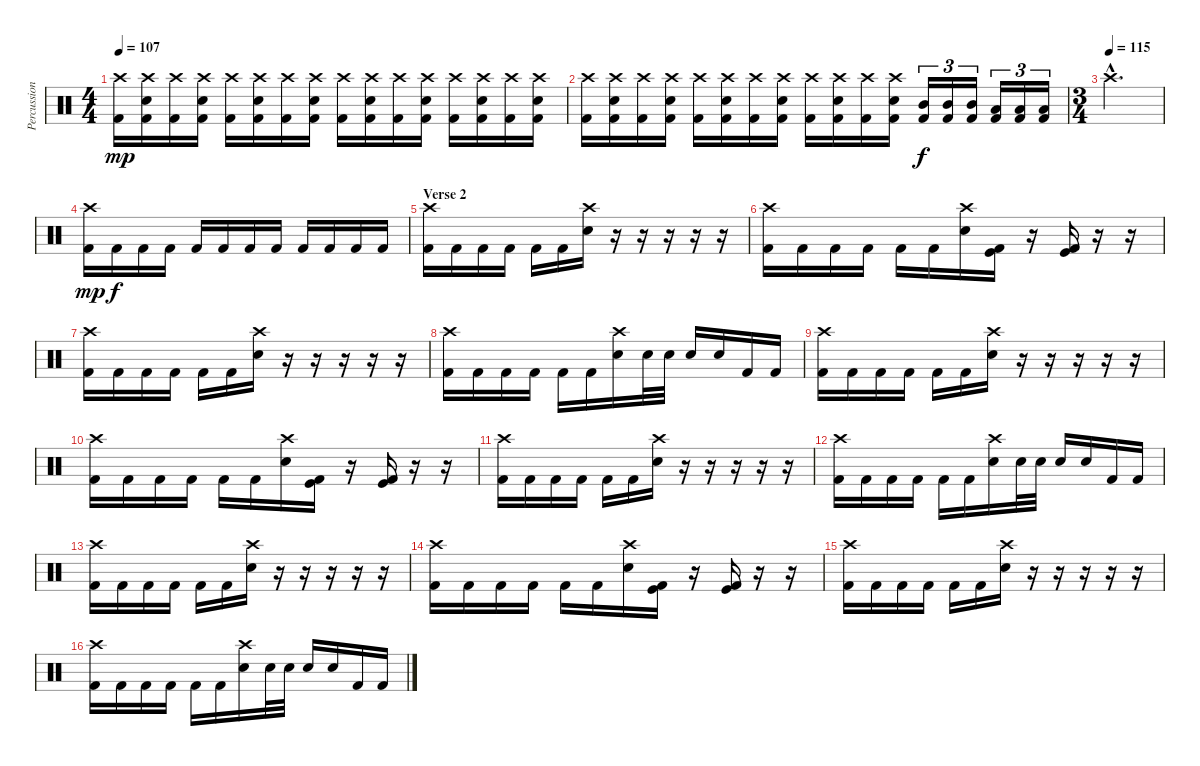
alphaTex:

\track ("Percussion" "Percussion") {instrument percussion}
\staff {score}
\articulation defaults
\ts (4 4)
\tempo 107
\clef neutral
\ks c
("Crash high (hit)" "Kick (hit) 2").16{dy mp} ("Crash high (hit)" "Electric Snare (hit)" "Kick (hit) 2").16 ("Crash high (hit)" "Kick (hit) 2").16 ("Crash high (hit)" "Electric Snare (hit)" "Kick (hit) 2").16 ("Crash high (hit)" "Kick (hit) 2").16 ("Crash high (hit)" "Electric Snare (hit)" "Kick (hit) 2").16 ("Crash high (hit)" "Kick (hit) 2").16 ("Crash high (hit)" "Electric Snare (hit)" "Kick (hit) 2").16 ("Crash high (hit)" "Kick (hit) 2").16 ("Crash high (hit)" "Electric Snare (hit)" "Kick (hit) 2").16 ("Crash high (hit)" "Kick (hit) 2").16 ("Crash high (hit)" "Electric Snare (hit)" "Kick (hit) 2").16 ("Crash high (hit)" "Kick (hit) 2").16 ("Crash high (hit)" "Electric Snare (hit)" "Kick (hit) 2").16 ("Crash high (hit)" "Kick (hit) 2").16 ("Crash high (hit)" "Electric Snare (hit)" "Kick (hit) 2").16 |
("Crash high (hit)" "Kick (hit) 2").16 ("Crash high (hit)" "Electric Snare (hit)" "Kick (hit) 2").16 ("Crash high (hit)" "Kick (hit) 2").16 ("Crash high (hit)" "Electric Snare (hit)" "Kick (hit) 2").16 ("Crash high (hit)" "Kick (hit) 2").16 ("Crash high (hit)" "Electric Snare (hit)" "Kick (hit) 2").16 ("Crash high (hit)" "Kick (hit) 2").16 ("Crash high (hit)" "Electric Snare (hit)" "Kick (hit) 2").16 ("Crash high (hit)" "Kick (hit) 2").16 ("Crash high (hit)" "Electric Snare (hit)" "Kick (hit) 2").16 ("Crash high (hit)" "Kick (hit) 2").16 ("Crash high (hit)" "Electric Snare (hit)" "Kick (hit) 2").16 ("Mid Tom (hit)" "Kick (hit) 2").16{tu (3 2) dy f} ("Mid Tom (hit)" "Kick (hit) 2").16{tu (3 2)} ("Mid Tom (hit)" "Kick (hit) 2").16{tu (3 2)} ("Low Tom (hit)" "Kick (hit) 2").16{tu (3 2)} ("Low Tom (hit)" "Kick (hit) 2").16{tu (3 2)} ("Low Tom (hit)" "Kick (hit) 2").16{tu (3 2)} |
\ts (3 4)
\tempo (115)
"Crash high (hit)"{hac}.2{d} |
("Crash high (hit)" "Kick (hit) 2").16{dy mp} "Kick (hit) 2".16{dy f} "Kick (hit) 2".16 "Kick (hit) 2".16 "Kick (hit) 2".16 "Kick (hit) 2".16 "Kick (hit) 2".16 "Kick (hit) 2".16 "Kick (hit) 2".16 "Kick (hit) 2".16 "Kick (hit) 2".16 "Kick (hit) 2".16 |
\section ("" "Verse 2")
("Crash high (hit)" "Kick (hit) 2").16 "Kick (hit) 2".16 "Kick (hit) 2".16 "Kick (hit) 2".16 "Kick (hit) 2".16 "Kick (hit) 2".16 ("Crash high (hit)" "Electric Snare (hit)").16 r.16 r.16 r.16 r.16 r.16 |
("Crash high (hit)" "Kick (hit) 2").16 "Kick (hit) 2".16 "Kick (hit) 2".16 "Kick (hit) 2".16 "Kick (hit) 2".16 "Kick (hit) 2".16 ("Crash high (hit)" "Electric Snare (hit)").16 ("Kick (hit)" "Kick (hit) 2").16 r.16 ("Kick (hit)" "Kick (hit) 2").16 r.16 r.16 |
("Crash high (hit)" "Kick (hit) 2").16 "Kick (hit) 2".16 "Kick (hit) 2".16 "Kick (hit) 2".16 "Kick (hit) 2".16 "Kick (hit) 2".16 ("Crash high (hit)" "Electric Snare (hit)").16 r.16 r.16 r.16 r.16 r.16 |
("Crash high (hit)" "Kick (hit) 2").16 "Kick (hit) 2".16 "Kick (hit) 2".16 "Kick (hit) 2".16 "Kick (hit) 2".16 "Kick (hit) 2".16 ("Crash high (hit)" "Electric Snare (hit)").16 "Electric Snare (hit)".32 "Electric Snare (hit)".32 "Electric Snare (hit)".16 "Electric Snare (hit)".16 "Kick (hit) 2".16 "Kick (hit) 2".16 |
("Crash high (hit)" "Kick (hit) 2").16 "Kick (hit) 2".16 "Kick (hit) 2".16 "Kick (hit) 2".16 "Kick (hit) 2".16 "Kick (hit) 2".16 ("Crash high (hit)" "Electric Snare (hit)").16 r.16 r.16 r.16 r.16 r.16 |
("Crash high (hit)" "Kick (hit) 2").16 "Kick (hit) 2".16 "Kick (hit) 2".16 "Kick (hit) 2".16 "Kick (hit) 2".16 "Kick (hit) 2".16 ("Crash high (hit)" "Electric Snare (hit)").16 ("Kick (hit)" "Kick (hit) 2").16 r.16 ("Kick (hit)" "Kick (hit) 2").16 r.16 r.16 |
("Crash high (hit)" "Kick (hit) 2").16 "Kick (hit) 2".16 "Kick (hit) 2".16 "Kick (hit) 2".16 "Kick (hit) 2".16 "Kick (hit) 2".16 ("Crash high (hit)" "Electric Snare (hit)").16 r.16 r.16 r.16 r.16 r.16 |
("Crash high (hit)" "Kick (hit) 2").16 "Kick (hit) 2".16 "Kick (hit) 2".16 "Kick (hit) 2".16 "Kick (hit) 2".16 "Kick (hit) 2".16 ("Crash high (hit)" "Electric Snare (hit)").16 "Electric Snare (hit)".32 "Electric Snare (hit)".32 "Electric Snare (hit)".16 "Electric Snare (hit)".16 "Kick (hit) 2".16 "Kick (hit) 2".16 |
("Crash high (hit)" "Kick (hit) 2").16 "Kick (hit) 2".16 "Kick (hit) 2".16 "Kick (hit) 2".16 "Kick (hit) 2".16 "Kick (hit) 2".16 ("Crash high (hit)" "Electric Snare (hit)").16 r.16 r.16 r.16 r.16 r.16 |
("Crash high (hit)" "Kick (hit) 2").16 "Kick (hit) 2".16 "Kick (hit) 2".16 "Kick (hit) 2".16 "Kick (hit) 2".16 "Kick (hit) 2".16 ("Crash high (hit)" "Electric Snare (hit)").16 ("Kick (hit)" "Kick (hit) 2").16 r.16 ("Kick (hit)" "Kick (hit) 2").16 r.16 r.16 |
("Crash high (hit)" "Kick (hit) 2").16 "Kick (hit) 2".16 "Kick (hit) 2".16 "Kick (hit) 2".16 "Kick (hit) 2".16 "Kick (hit) 2".16 ("Crash high (hit)" "Electric Snare (hit)").16 r.16 r.16 r.16 r.16 r.16 |
("Crash high (hit)" "Kick (hit) 2").16 "Kick (hit) 2".16 "Kick (hit) 2".16 "Kick (hit) 2".16 "Kick (hit) 2".16 "Kick (hit) 2".16 ("Crash high (hit)" "Electric Snare (hit)").16 "Electric Snare (hit)".32 "Electric Snare (hit)".32 "Electric Snare (hit)".16 "Electric Snare (hit)".16 "Kick (hit) 2".16 "Kick (hit) 2".16
